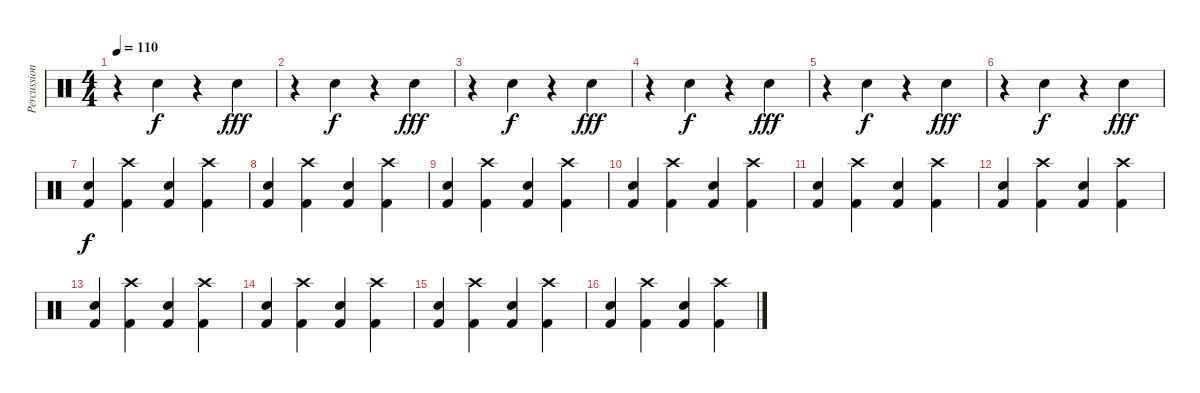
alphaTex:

\track ("Percussion" "Percussion") {instrument percussion}
\staff {score}
\articulation defaults
\ts (4 4)
\tempo 110
\clef neutral
\ks c
r.4{dy fff} "Snare (hit) 2".4{dy f} r.4 "Snare (hit) 2".4{dy fff} |
r.4 "Snare (hit) 2".4{dy f} r.4 "Snare (hit) 2".4{dy fff} |
r.4 "Snare (hit) 2".4{dy f} r.4 "Snare (hit) 2".4{dy fff} |
r.4 "Snare (hit) 2".4{dy f} r.4 "Snare (hit) 2".4{dy fff} |
r.4 "Snare (hit) 2".4{dy f} r.4 "Snare (hit) 2".4{dy fff} |
r.4 "Snare (hit) 2".4{dy f} r.4 "Snare (hit) 2".4{dy fff} |
("Snare (hit) 2" "Kick (hit) 2").4{dy f} ("Crash high (hit)" "Kick (hit) 2").4 ("Snare (hit) 2" "Kick (hit) 2").4 ("Crash high (hit)" "Kick (hit) 2").4 |
("Snare (hit) 2" "Kick (hit) 2").4 ("Crash high (hit)" "Kick (hit) 2").4 ("Snare (hit) 2" "Kick (hit) 2").4 ("Crash high (hit)" "Kick (hit) 2").4 |
("Snare (hit) 2" "Kick (hit) 2").4 ("Crash high (hit)" "Kick (hit) 2").4 ("Snare (hit) 2" "Kick (hit) 2").4 ("Crash high (hit)" "Kick (hit) 2").4 |
("Snare (hit) 2" "Kick (hit) 2").4 ("Crash high (hit)" "Kick (hit) 2").4 ("Snare (hit) 2" "Kick (hit) 2").4 ("Crash high (hit)" "Kick (hit) 2").4 |
("Snare (hit) 2" "Kick (hit) 2").4 ("Crash high (hit)" "Kick (hit) 2").4 ("Snare (hit) 2" "Kick (hit) 2").4 ("Crash high (hit)" "Kick (hit) 2").4 |
("Snare (hit) 2" "Kick (hit) 2").4 ("Crash high (hit)" "Kick (hit) 2").4 ("Snare (hit) 2" "Kick (hit) 2").4 ("Crash high (hit)" "Kick (hit) 2").4 |
("Snare (hit) 2" "Kick (hit) 2").4 ("Crash high (hit)" "Kick (hit) 2").4 ("Snare (hit) 2" "Kick (hit) 2").4 ("Crash high (hit)" "Kick (hit) 2").4 |
("Snare (hit) 2" "Kick (hit) 2").4 ("Crash high (hit)" "Kick (hit) 2").4 ("Snare (hit) 2" "Kick (hit) 2").4 ("Crash high (hit)" "Kick (hit) 2").4 |
("Snare (hit) 2" "Kick (hit) 2").4 ("Crash high (hit)" "Kick (hit) 2").4 ("Snare (hit) 2" "Kick (hit) 2").4 ("Crash high (hit)" "Kick (hit) 2").4 |
("Snare (hit) 2" "Kick (hit) 2").4 ("Crash high (hit)" "Kick (hit) 2").4 ("Snare (hit) 2" "Kick (hit) 2").4 ("Crash high (hit)" "Kick (hit) 2").4
